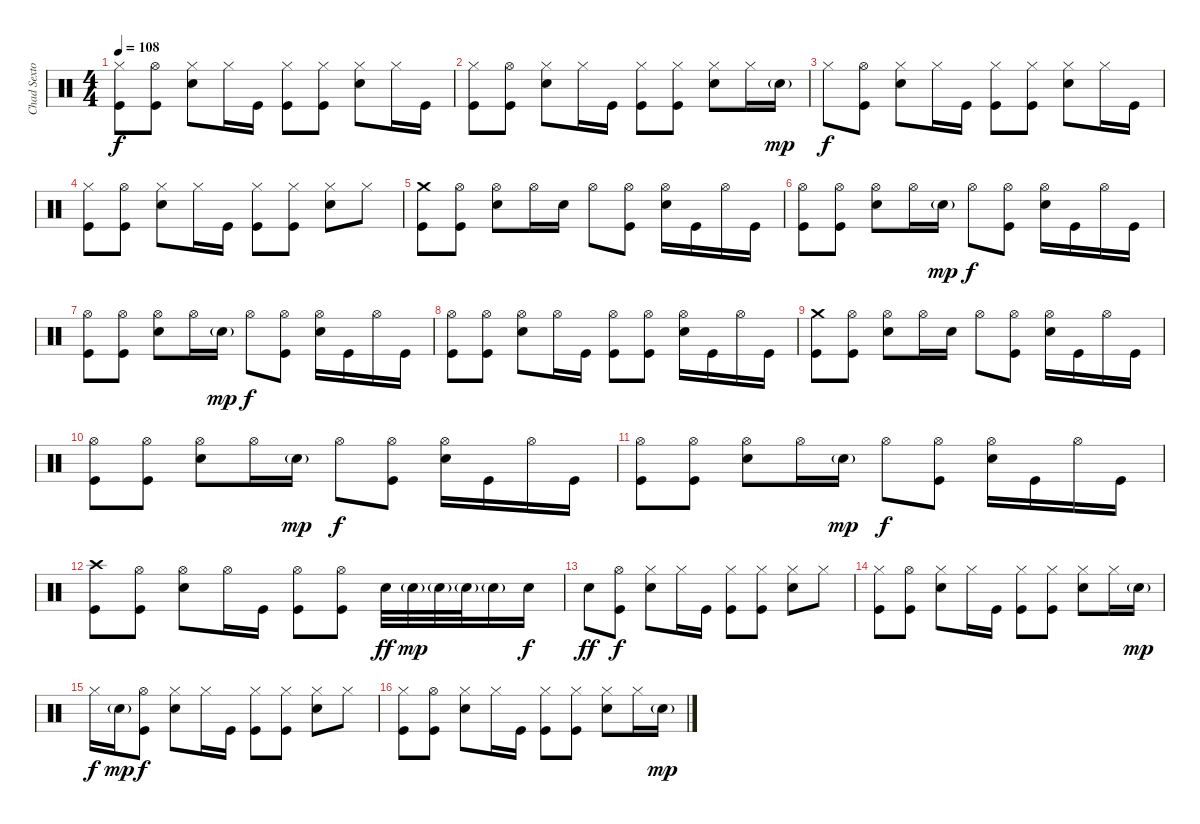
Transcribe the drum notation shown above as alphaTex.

\track ("Chad Sexton Drums" "Chad Sexto") {instrument percussion}
\staff {score}
\articulation defaults
\ts (4 4)
\tempo 108
\clef neutral
\ks c
("Hi-Hat (closed)" "Kick (hit)").8{dy f} ("Hi-Hat (open)" "Kick (hit)").8 ("Hi-Hat (closed)" "Electric Snare (hit)").8 "Hi-Hat (closed)".16 "Kick (hit)".16 ("Hi-Hat (closed)" "Kick (hit)").8 ("Hi-Hat (closed)" "Kick (hit)").8 ("Hi-Hat (closed)" "Electric Snare (hit)").8 "Hi-Hat (closed)".16 "Kick (hit)".16 |
("Hi-Hat (closed)" "Kick (hit)").8 ("Hi-Hat (open)" "Kick (hit)").8 ("Hi-Hat (closed)" "Electric Snare (hit)").8 "Hi-Hat (closed)".16 "Kick (hit)".16 ("Hi-Hat (closed)" "Kick (hit)").8 ("Hi-Hat (closed)" "Kick (hit)").8 ("Hi-Hat (closed)" "Electric Snare (hit)").8 "Hi-Hat (closed)".16 "Electric Snare (hit)"{g}.16{dy mp} |
"Hi-Hat (closed)".8{dy f} ("Hi-Hat (open)" "Kick (hit)").8 ("Hi-Hat (closed)" "Electric Snare (hit)").8 "Hi-Hat (closed)".16 "Kick (hit)".16 ("Hi-Hat (closed)" "Kick (hit)").8 ("Hi-Hat (closed)" "Kick (hit)").8 ("Hi-Hat (closed)" "Electric Snare (hit)").8 "Hi-Hat (closed)".16 "Kick (hit)".16 |
("Hi-Hat (closed)" "Kick (hit)").8 ("Hi-Hat (open)" "Kick (hit)").8 ("Hi-Hat (closed)" "Electric Snare (hit)").8 "Hi-Hat (closed)".16 "Kick (hit)".16 ("Hi-Hat (closed)" "Kick (hit)").8 ("Hi-Hat (closed)" "Kick (hit)").8 ("Hi-Hat (closed)" "Electric Snare (hit)").8 "Hi-Hat (closed)".8 |
("Crash medium (hit)" "Kick (hit)").8 ("Hi-Hat (open)" "Kick (hit)").8 ("Hi-Hat (open)" "Electric Snare (hit)").8 "Hi-Hat (open)".16 "Electric Snare (hit)".16 "Hi-Hat (open)".8 ("Hi-Hat (open)" "Kick (hit)").8 ("Hi-Hat (open)" "Electric Snare (hit)").16 "Kick (hit)".16 "Hi-Hat (open)".16 "Kick (hit)".16 |
("Hi-Hat (open)" "Kick (hit)").8 ("Hi-Hat (open)" "Kick (hit)").8 ("Hi-Hat (open)" "Electric Snare (hit)").8 "Hi-Hat (open)".16 "Electric Snare (hit)"{g}.16{dy mp} "Hi-Hat (open)".8{dy f} ("Hi-Hat (open)" "Kick (hit)").8 ("Hi-Hat (open)" "Electric Snare (hit)").16 "Kick (hit)".16 "Hi-Hat (open)".16 "Kick (hit)".16 |
("Hi-Hat (open)" "Kick (hit)").8 ("Hi-Hat (open)" "Kick (hit)").8 ("Hi-Hat (open)" "Electric Snare (hit)").8 "Hi-Hat (open)".16 "Electric Snare (hit)"{g}.16{dy mp} "Hi-Hat (open)".8{dy f} ("Hi-Hat (open)" "Kick (hit)").8 ("Hi-Hat (open)" "Electric Snare (hit)").16 "Kick (hit)".16 "Hi-Hat (open)".16 "Kick (hit)".16 |
("Hi-Hat (open)" "Kick (hit)").8 ("Hi-Hat (open)" "Kick (hit)").8 ("Hi-Hat (open)" "Electric Snare (hit)").8 "Hi-Hat (open)".16 "Kick (hit)".16 ("Hi-Hat (open)" "Kick (hit)").8 ("Hi-Hat (open)" "Kick (hit)").8 ("Hi-Hat (open)" "Electric Snare (hit)").16 "Kick (hit)".16 "Hi-Hat (open)".16 "Kick (hit)".16 |
("Crash medium (hit)" "Kick (hit)").8 ("Hi-Hat (open)" "Kick (hit)").8 ("Hi-Hat (open)" "Electric Snare (hit)").8 "Hi-Hat (open)".16 "Electric Snare (hit)".16 "Hi-Hat (open)".8 ("Hi-Hat (open)" "Kick (hit)").8 ("Hi-Hat (open)" "Electric Snare (hit)").16 "Kick (hit)".16 "Hi-Hat (open)".16 "Kick (hit)".16 |
("Hi-Hat (open)" "Kick (hit)").8 ("Hi-Hat (open)" "Kick (hit)").8 ("Hi-Hat (open)" "Electric Snare (hit)").8 "Hi-Hat (open)".16 "Electric Snare (hit)"{g}.16{dy mp} "Hi-Hat (open)".8{dy f} ("Hi-Hat (open)" "Kick (hit)").8 ("Hi-Hat (open)" "Electric Snare (hit)").16 "Kick (hit)".16 "Hi-Hat (open)".16 "Kick (hit)".16 |
("Hi-Hat (open)" "Kick (hit)").8 ("Hi-Hat (open)" "Kick (hit)").8 ("Hi-Hat (open)" "Electric Snare (hit)").8 "Hi-Hat (open)".16 "Electric Snare (hit)"{g}.16{dy mp} "Hi-Hat (open)".8{dy f} ("Hi-Hat (open)" "Kick (hit)").8 ("Hi-Hat (open)" "Electric Snare (hit)").16 "Kick (hit)".16 "Hi-Hat (open)".16 "Kick (hit)".16 |
("Crash high (hit)" "Kick (hit)").8 ("Hi-Hat (open)" "Kick (hit)").8 ("Hi-Hat (open)" "Electric Snare (hit)").8 "Hi-Hat (open)".16 "Kick (hit)".16 ("Hi-Hat (open)" "Kick (hit)").8 ("Hi-Hat (open)" "Kick (hit)").8 "Electric Snare (hit)".32{dy ff} "Electric Snare (hit)"{g}.32{dy mp} "Electric Snare (hit)"{g}.32 "Electric Snare (hit)"{g}.32 "Electric Snare (hit)"{g}.16 "Electric Snare (hit)".16{dy f} |
"Electric Snare (hit)".8{dy ff} ("Hi-Hat (open)" "Kick (hit)").8{dy f} ("Hi-Hat (closed)" "Electric Snare (hit)").8 "Hi-Hat (closed)".16 "Kick (hit)".16 ("Hi-Hat (closed)" "Kick (hit)").8 ("Hi-Hat (closed)" "Kick (hit)").8 ("Hi-Hat (closed)" "Electric Snare (hit)").8 "Hi-Hat (closed)".8 |
("Hi-Hat (closed)" "Kick (hit)").8 ("Hi-Hat (open)" "Kick (hit)").8 ("Hi-Hat (closed)" "Electric Snare (hit)").8 "Hi-Hat (closed)".16 "Kick (hit)".16 ("Hi-Hat (closed)" "Kick (hit)").8 ("Hi-Hat (closed)" "Kick (hit)").8 ("Hi-Hat (closed)" "Electric Snare (hit)").8 "Hi-Hat (closed)".16 "Electric Snare (hit)"{g}.16{dy mp} |
"Hi-Hat (closed)".16{dy f} "Electric Snare (hit)"{g}.16{dy mp} ("Hi-Hat (open)" "Kick (hit)").8{dy f} ("Hi-Hat (closed)" "Electric Snare (hit)").8 "Hi-Hat (closed)".16 "Kick (hit)".16 ("Hi-Hat (closed)" "Kick (hit)").8 ("Hi-Hat (closed)" "Kick (hit)").8 ("Hi-Hat (closed)" "Electric Snare (hit)").8 "Hi-Hat (closed)".8 |
("Hi-Hat (closed)" "Kick (hit)").8 ("Hi-Hat (open)" "Kick (hit)").8 ("Hi-Hat (closed)" "Electric Snare (hit)").8 "Hi-Hat (closed)".16 "Kick (hit)".16 ("Hi-Hat (closed)" "Kick (hit)").8 ("Hi-Hat (closed)" "Kick (hit)").8 ("Hi-Hat (closed)" "Electric Snare (hit)").8 "Hi-Hat (closed)".16 "Electric Snare (hit)"{g}.16{dy mp}
